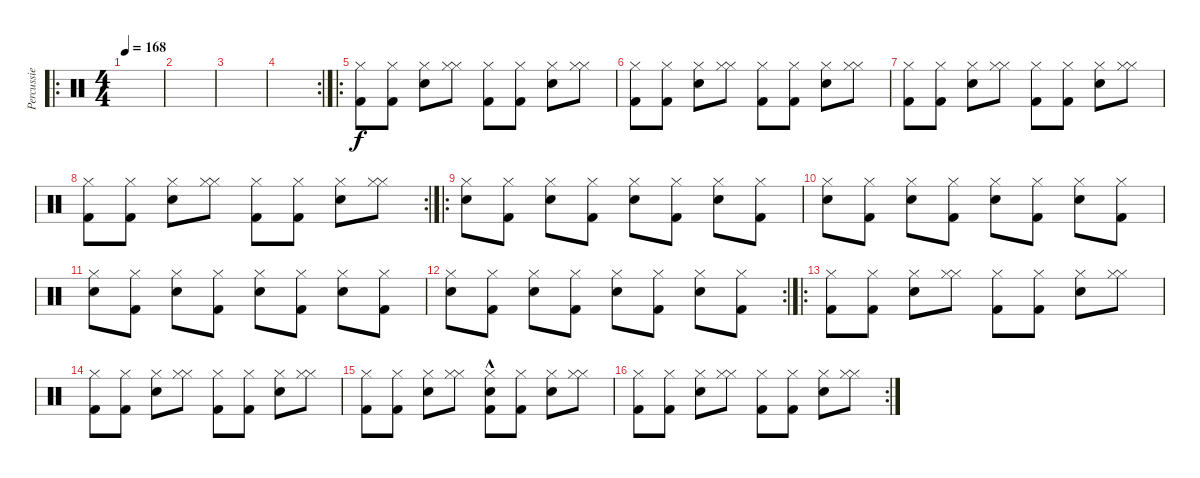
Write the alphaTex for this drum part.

\track ("Percussie" "Percussie") {instrument percussion}
\staff {score}
\articulation defaults
\ro
\ts (4 4)
\tempo 168
\clef neutral
\ks c
|
|
|
\rc 2
|
\ro
("Kick (hit) 2" "Hi-Hat (closed)").8 ("Kick (hit) 2" "Hi-Hat (closed)").8 ("Snare (hit) 2" "Hi-Hat (closed)").8 ("Hi-Hat (closed)" "Hi-Hat (closed)").8 ("Kick (hit) 2" "Hi-Hat (closed)").8 ("Kick (hit) 2" "Hi-Hat (closed)").8 ("Snare (hit) 2" "Hi-Hat (closed)").8 ("Hi-Hat (closed)" "Hi-Hat (closed)").8 |
("Kick (hit) 2" "Hi-Hat (closed)").8 ("Kick (hit) 2" "Hi-Hat (closed)").8 ("Snare (hit) 2" "Hi-Hat (closed)").8 ("Hi-Hat (closed)" "Hi-Hat (closed)").8 ("Kick (hit) 2" "Hi-Hat (closed)").8 ("Kick (hit) 2" "Hi-Hat (closed)").8 ("Snare (hit) 2" "Hi-Hat (closed)").8 ("Hi-Hat (closed)" "Hi-Hat (closed)").8 |
("Kick (hit) 2" "Hi-Hat (closed)").8 ("Kick (hit) 2" "Hi-Hat (closed)").8 ("Snare (hit) 2" "Hi-Hat (closed)").8 ("Hi-Hat (closed)" "Hi-Hat (closed)").8 ("Kick (hit) 2" "Hi-Hat (closed)").8 ("Kick (hit) 2" "Hi-Hat (closed)").8 ("Snare (hit) 2" "Hi-Hat (closed)").8 ("Hi-Hat (closed)" "Hi-Hat (closed)").8 |
\rc 2
("Kick (hit) 2" "Hi-Hat (closed)").8 ("Kick (hit) 2" "Hi-Hat (closed)").8 ("Snare (hit) 2" "Hi-Hat (closed)").8 ("Hi-Hat (closed)" "Hi-Hat (closed)").8 ("Kick (hit) 2" "Hi-Hat (closed)").8 ("Kick (hit) 2" "Hi-Hat (closed)").8 ("Snare (hit) 2" "Hi-Hat (closed)").8 ("Hi-Hat (closed)" "Hi-Hat (closed)").8 |
\ro
("Hi-Hat (closed)" "Snare (hit) 2").8 ("Hi-Hat (closed)" "Kick (hit) 2").8 ("Hi-Hat (closed)" "Snare (hit) 2").8 ("Hi-Hat (closed)" "Kick (hit) 2").8 ("Hi-Hat (closed)" "Snare (hit) 2").8 ("Hi-Hat (closed)" "Kick (hit) 2").8 ("Hi-Hat (closed)" "Snare (hit) 2").8 ("Hi-Hat (closed)" "Kick (hit) 2").8 |
("Hi-Hat (closed)" "Snare (hit) 2").8 ("Hi-Hat (closed)" "Kick (hit) 2").8 ("Hi-Hat (closed)" "Snare (hit) 2").8 ("Hi-Hat (closed)" "Kick (hit) 2").8 ("Hi-Hat (closed)" "Snare (hit) 2").8 ("Hi-Hat (closed)" "Kick (hit) 2").8 ("Hi-Hat (closed)" "Snare (hit) 2").8 ("Hi-Hat (closed)" "Kick (hit) 2").8 |
("Hi-Hat (closed)" "Snare (hit) 2").8 ("Hi-Hat (closed)" "Kick (hit) 2").8 ("Hi-Hat (closed)" "Snare (hit) 2").8 ("Hi-Hat (closed)" "Kick (hit) 2").8 ("Hi-Hat (closed)" "Snare (hit) 2").8 ("Hi-Hat (closed)" "Kick (hit) 2").8 ("Hi-Hat (closed)" "Snare (hit) 2").8 ("Hi-Hat (closed)" "Kick (hit) 2").8 |
\rc 2
("Hi-Hat (closed)" "Snare (hit) 2").8 ("Hi-Hat (closed)" "Kick (hit) 2").8 ("Hi-Hat (closed)" "Snare (hit) 2").8 ("Hi-Hat (closed)" "Kick (hit) 2").8 ("Hi-Hat (closed)" "Snare (hit) 2").8 ("Hi-Hat (closed)" "Kick (hit) 2").8 ("Hi-Hat (closed)" "Snare (hit) 2").8 ("Hi-Hat (closed)" "Kick (hit) 2").8 |
\ro
("Hi-Hat (closed)" "Kick (hit) 2").8 ("Hi-Hat (closed)" "Kick (hit) 2").8 ("Hi-Hat (closed)" "Snare (hit) 2").8 ("Hi-Hat (closed)" "Hi-Hat (closed)").8 ("Hi-Hat (closed)" "Kick (hit) 2").8 ("Hi-Hat (closed)" "Kick (hit) 2").8 ("Hi-Hat (closed)" "Snare (hit) 2").8 ("Hi-Hat (closed)" "Hi-Hat (closed)").8 |
("Hi-Hat (closed)" "Kick (hit) 2").8 ("Hi-Hat (closed)" "Kick (hit) 2").8 ("Hi-Hat (closed)" "Snare (hit) 2").8 ("Hi-Hat (closed)" "Hi-Hat (closed)").8 ("Hi-Hat (closed)" "Kick (hit) 2").8 ("Hi-Hat (closed)" "Kick (hit) 2").8 ("Hi-Hat (closed)" "Snare (hit) 2").8 ("Hi-Hat (closed)" "Hi-Hat (closed)").8 |
("Hi-Hat (closed)" "Kick (hit) 2").8 ("Hi-Hat (closed)" "Kick (hit) 2").8 ("Hi-Hat (closed)" "Snare (hit) 2").8 ("Hi-Hat (closed)" "Hi-Hat (closed)").8 ("Snare (hit)"{hac} "Hi-Hat (closed)" "Kick (hit) 2").8 ("Hi-Hat (closed)" "Kick (hit) 2").8 ("Hi-Hat (closed)" "Snare (hit) 2").8 ("Hi-Hat (closed)" "Hi-Hat (closed)").8 |
\rc 2
("Hi-Hat (closed)" "Kick (hit) 2").8 ("Hi-Hat (closed)" "Kick (hit) 2").8 ("Hi-Hat (closed)" "Snare (hit) 2").8 ("Hi-Hat (closed)" "Hi-Hat (closed)").8 ("Hi-Hat (closed)" "Kick (hit) 2").8 ("Hi-Hat (closed)" "Kick (hit) 2").8 ("Hi-Hat (closed)" "Snare (hit) 2").8 ("Hi-Hat (closed)" "Hi-Hat (closed)").8
